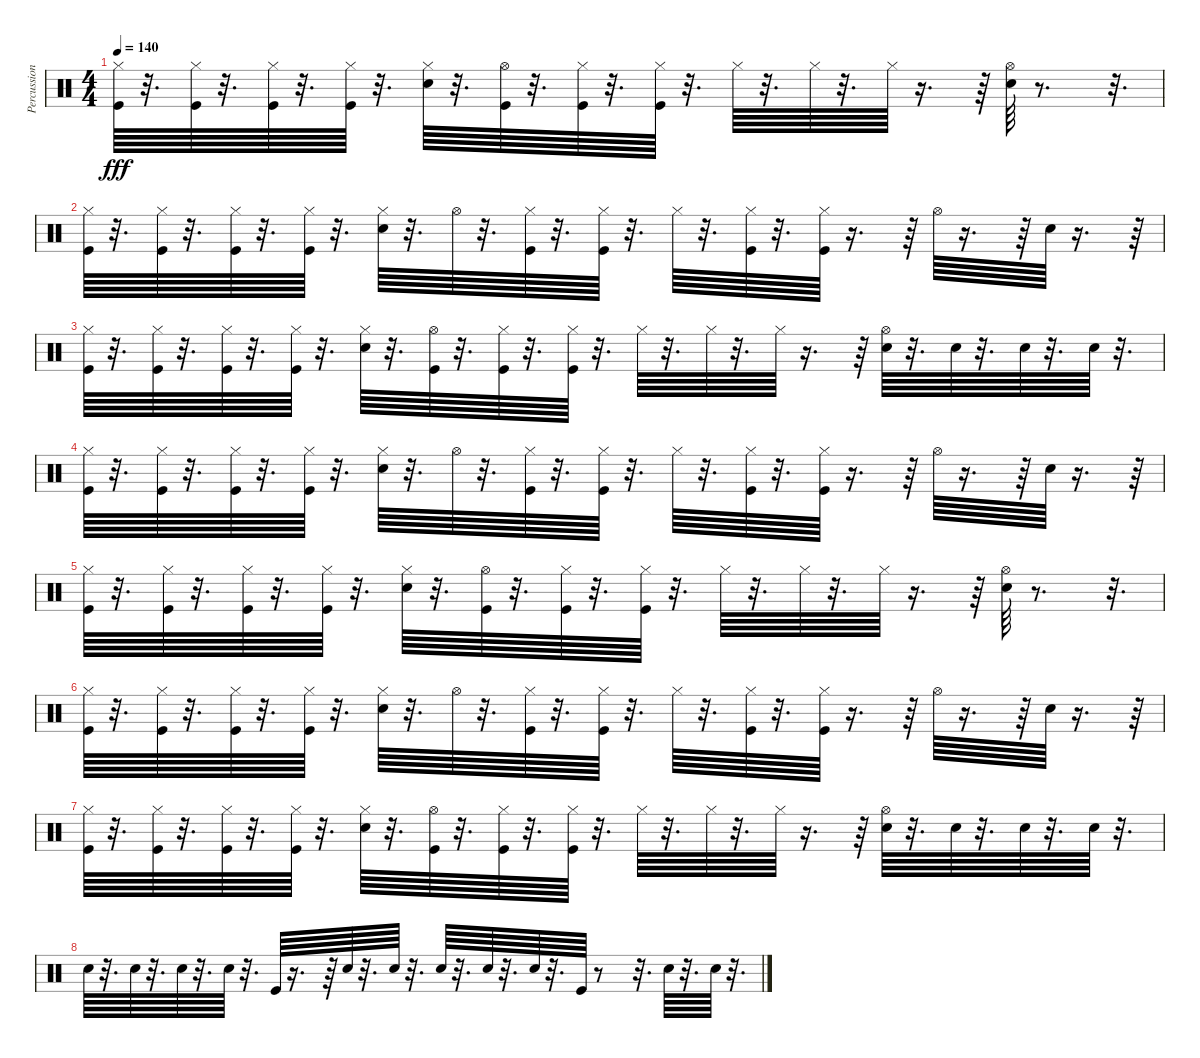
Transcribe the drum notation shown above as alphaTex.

\track ("Percussion [Room Kit]" "Percussion") {instrument percussion}
\staff {score}
\articulation defaults
\ts (4 4)
\tempo 140
\clef neutral
\ks c
("Kick (hit)" "Hi-Hat (closed)").64{dy fff} r.32{d} ("Kick (hit)" "Hi-Hat (closed)").64 r.32{d} ("Kick (hit)" "Hi-Hat (closed)").64 r.32{d} ("Kick (hit)" "Hi-Hat (closed)").64 r.32{d} ("Electric Snare (hit)" "Hi-Hat (closed)").64 r.32{d} ("Kick (hit)" "Hi-Hat (open)").64 r.32{d} ("Kick (hit)" "Hi-Hat (closed)").64 r.32{d} ("Kick (hit)" "Hi-Hat (closed)").64 r.32{d} "Hi-Hat (closed)".64 r.32{d} "Hi-Hat (closed)".64 r.32{d} "Hi-Hat (closed)".64 r.16{d} r.64 ("Electric Snare (hit)" "Hi-Hat (open)").64 r.8{d} r.32{d} |
("Kick (hit)" "Hi-Hat (closed)").64 r.32{d} ("Kick (hit)" "Hi-Hat (closed)").64 r.32{d} ("Kick (hit)" "Hi-Hat (closed)").64 r.32{d} ("Kick (hit)" "Hi-Hat (closed)").64 r.32{d} ("Electric Snare (hit)" "Hi-Hat (closed)").64 r.32{d} "Hi-Hat (open)".64 r.32{d} ("Kick (hit)" "Hi-Hat (closed)").64 r.32{d} ("Kick (hit)" "Hi-Hat (closed)").64 r.32{d} "Hi-Hat (closed)".64 r.32{d} ("Kick (hit)" "Hi-Hat (closed)").64 r.32{d} ("Kick (hit)" "Hi-Hat (closed)").64 r.16{d} r.64 "Hi-Hat (open)".64 r.16{d} r.64 "Electric Snare (hit)".64 r.16{d} r.64 |
("Kick (hit)" "Hi-Hat (closed)").64 r.32{d} ("Kick (hit)" "Hi-Hat (closed)").64 r.32{d} ("Kick (hit)" "Hi-Hat (closed)").64 r.32{d} ("Kick (hit)" "Hi-Hat (closed)").64 r.32{d} ("Electric Snare (hit)" "Hi-Hat (closed)").64 r.32{d} ("Kick (hit)" "Hi-Hat (open)").64 r.32{d} ("Kick (hit)" "Hi-Hat (closed)").64 r.32{d} ("Kick (hit)" "Hi-Hat (closed)").64 r.32{d} "Hi-Hat (closed)".64 r.32{d} "Hi-Hat (closed)".64 r.32{d} "Hi-Hat (closed)".64 r.16{d} r.64 ("Electric Snare (hit)" "Hi-Hat (open)").64 r.32{d} "Electric Snare (hit)".64 r.32{d} "Electric Snare (hit)".64 r.32{d} "Electric Snare (hit)".64 r.32{d} |
("Kick (hit)" "Hi-Hat (closed)").64 r.32{d} ("Kick (hit)" "Hi-Hat (closed)").64 r.32{d} ("Kick (hit)" "Hi-Hat (closed)").64 r.32{d} ("Kick (hit)" "Hi-Hat (closed)").64 r.32{d} ("Electric Snare (hit)" "Hi-Hat (closed)").64 r.32{d} "Hi-Hat (open)".64 r.32{d} ("Kick (hit)" "Hi-Hat (closed)").64 r.32{d} ("Kick (hit)" "Hi-Hat (closed)").64 r.32{d} "Hi-Hat (closed)".64 r.32{d} ("Kick (hit)" "Hi-Hat (closed)").64 r.32{d} ("Kick (hit)" "Hi-Hat (closed)").64 r.16{d} r.64 "Hi-Hat (open)".64 r.16{d} r.64 "Electric Snare (hit)".64 r.16{d} r.64 |
("Kick (hit)" "Hi-Hat (closed)").64 r.32{d} ("Kick (hit)" "Hi-Hat (closed)").64 r.32{d} ("Kick (hit)" "Hi-Hat (closed)").64 r.32{d} ("Kick (hit)" "Hi-Hat (closed)").64 r.32{d} ("Electric Snare (hit)" "Hi-Hat (closed)").64 r.32{d} ("Kick (hit)" "Hi-Hat (open)").64 r.32{d} ("Kick (hit)" "Hi-Hat (closed)").64 r.32{d} ("Kick (hit)" "Hi-Hat (closed)").64 r.32{d} "Hi-Hat (closed)".64 r.32{d} "Hi-Hat (closed)".64 r.32{d} "Hi-Hat (closed)".64 r.16{d} r.64 ("Electric Snare (hit)" "Hi-Hat (open)").64 r.8{d} r.32{d} |
("Kick (hit)" "Hi-Hat (closed)").64 r.32{d} ("Kick (hit)" "Hi-Hat (closed)").64 r.32{d} ("Kick (hit)" "Hi-Hat (closed)").64 r.32{d} ("Kick (hit)" "Hi-Hat (closed)").64 r.32{d} ("Electric Snare (hit)" "Hi-Hat (closed)").64 r.32{d} "Hi-Hat (open)".64 r.32{d} ("Kick (hit)" "Hi-Hat (closed)").64 r.32{d} ("Kick (hit)" "Hi-Hat (closed)").64 r.32{d} "Hi-Hat (closed)".64 r.32{d} ("Kick (hit)" "Hi-Hat (closed)").64 r.32{d} ("Kick (hit)" "Hi-Hat (closed)").64 r.16{d} r.64 "Hi-Hat (open)".64 r.16{d} r.64 "Electric Snare (hit)".64 r.16{d} r.64 |
("Kick (hit)" "Hi-Hat (closed)").64 r.32{d} ("Kick (hit)" "Hi-Hat (closed)").64 r.32{d} ("Kick (hit)" "Hi-Hat (closed)").64 r.32{d} ("Kick (hit)" "Hi-Hat (closed)").64 r.32{d} ("Electric Snare (hit)" "Hi-Hat (closed)").64 r.32{d} ("Kick (hit)" "Hi-Hat (open)").64 r.32{d} ("Kick (hit)" "Hi-Hat (closed)").64 r.32{d} ("Kick (hit)" "Hi-Hat (closed)").64 r.32{d} "Hi-Hat (closed)".64 r.32{d} "Hi-Hat (closed)".64 r.32{d} "Hi-Hat (closed)".64 r.16{d} r.64 ("Electric Snare (hit)" "Hi-Hat (open)").64 r.32{d} "Electric Snare (hit)".64 r.32{d} "Electric Snare (hit)".64 r.32{d} "Electric Snare (hit)".64 r.32{d} |
"Electric Snare (hit)".64 r.32{d} "Electric Snare (hit)".64 r.32{d} "Electric Snare (hit)".64 r.32{d} "Electric Snare (hit)".64 r.32{d} "Kick (hit)".64 r.16{d} r.64 "Electric Snare (hit)".64 r.32{d} "Electric Snare (hit)".64 r.32{d} "Electric Snare (hit)".64 r.32{d} "Electric Snare (hit)".64 r.32{d} "Electric Snare (hit)".64 r.32{d} "Kick (hit)".64 r.8 r.32{d} "Electric Snare (hit)".64 r.32{d} "Electric Snare (hit)".64 r.32{d}
